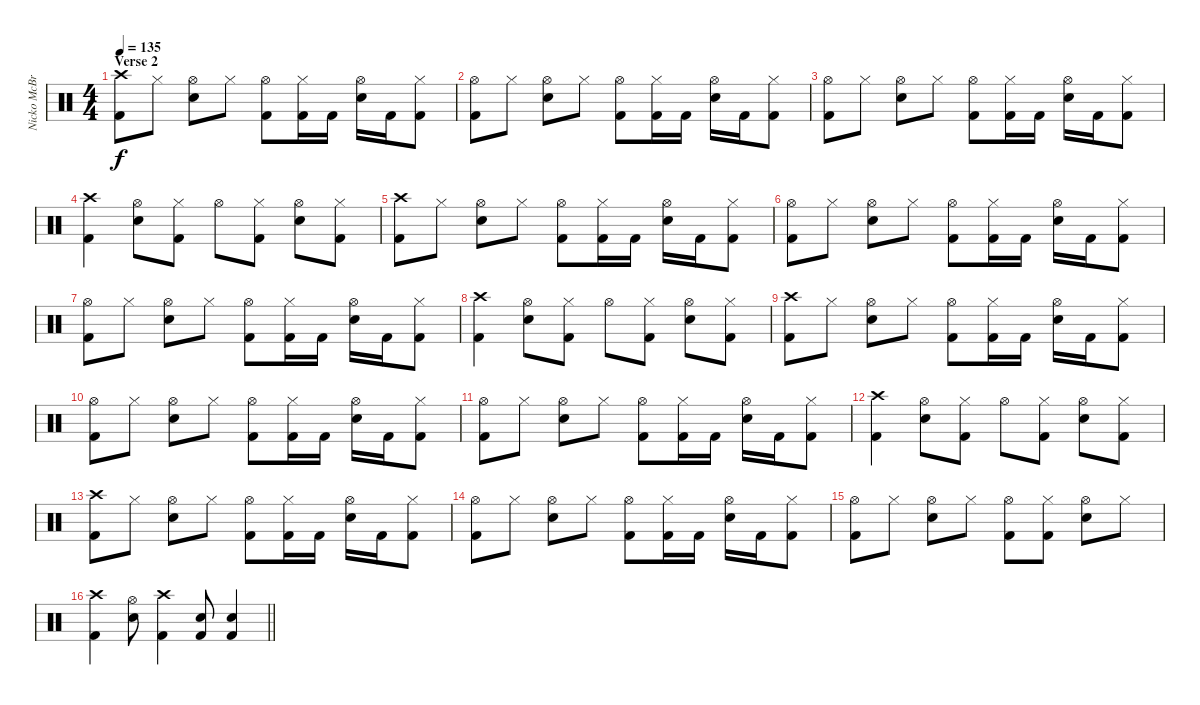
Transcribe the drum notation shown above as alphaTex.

\track ("Nicko McBrain" "Nicko McBr") {instrument percussion}
\staff {score}
\articulation defaults
\ts (4 4)
\section ("" "Verse 2")
\tempo 135
\clef neutral
\ks c
("Crash high (hit)" "Kick (hit) 2").8{dy f} "Hi-Hat (closed)".8 ("Hi-Hat (open)" "Electric Snare (hit)").8 "Hi-Hat (closed)".8 ("Hi-Hat (open)" "Kick (hit) 2").8 ("Hi-Hat (closed)" "Kick (hit) 2").16 "Kick (hit) 2".16 ("Hi-Hat (open)" "Electric Snare (hit)").16 "Kick (hit) 2".16 ("Hi-Hat (closed)" "Kick (hit) 2").8 |
("Hi-Hat (open)" "Kick (hit) 2").8 "Hi-Hat (closed)".8 ("Hi-Hat (open)" "Electric Snare (hit)").8 "Hi-Hat (closed)".8 ("Hi-Hat (open)" "Kick (hit) 2").8 ("Hi-Hat (closed)" "Kick (hit) 2").16 "Kick (hit) 2".16 ("Hi-Hat (open)" "Electric Snare (hit)").16 "Kick (hit) 2".16 ("Hi-Hat (closed)" "Kick (hit) 2").8 |
("Hi-Hat (open)" "Kick (hit) 2").8 "Hi-Hat (closed)".8 ("Hi-Hat (open)" "Electric Snare (hit)").8 "Hi-Hat (closed)".8 ("Hi-Hat (open)" "Kick (hit) 2").8 ("Hi-Hat (closed)" "Kick (hit) 2").16 "Kick (hit) 2".16 ("Hi-Hat (open)" "Electric Snare (hit)").16 "Kick (hit) 2".16 ("Hi-Hat (closed)" "Kick (hit) 2").8 |
("Crash high (hit)" "Kick (hit) 2").4 ("Hi-Hat (open)" "Electric Snare (hit)").8 ("Hi-Hat (closed)" "Kick (hit) 2").8 "Hi-Hat (open)".8 ("Hi-Hat (closed)" "Kick (hit) 2").8 ("Hi-Hat (open)" "Electric Snare (hit)").8 ("Hi-Hat (closed)" "Kick (hit) 2").8 |
("Crash high (hit)" "Kick (hit) 2").8 "Hi-Hat (closed)".8 ("Hi-Hat (open)" "Electric Snare (hit)").8 "Hi-Hat (closed)".8 ("Hi-Hat (open)" "Kick (hit) 2").8 ("Hi-Hat (closed)" "Kick (hit) 2").16 "Kick (hit) 2".16 ("Hi-Hat (open)" "Electric Snare (hit)").16 "Kick (hit) 2".16 ("Hi-Hat (closed)" "Kick (hit) 2").8 |
("Hi-Hat (open)" "Kick (hit) 2").8 "Hi-Hat (closed)".8 ("Hi-Hat (open)" "Electric Snare (hit)").8 "Hi-Hat (closed)".8 ("Hi-Hat (open)" "Kick (hit) 2").8 ("Hi-Hat (closed)" "Kick (hit) 2").16 "Kick (hit) 2".16 ("Hi-Hat (open)" "Electric Snare (hit)").16 "Kick (hit) 2".16 ("Hi-Hat (closed)" "Kick (hit) 2").8 |
("Hi-Hat (open)" "Kick (hit) 2").8 "Hi-Hat (closed)".8 ("Hi-Hat (open)" "Electric Snare (hit)").8 "Hi-Hat (closed)".8 ("Hi-Hat (open)" "Kick (hit) 2").8 ("Hi-Hat (closed)" "Kick (hit) 2").16 "Kick (hit) 2".16 ("Hi-Hat (open)" "Electric Snare (hit)").16 "Kick (hit) 2".16 ("Hi-Hat (closed)" "Kick (hit) 2").8 |
("Crash high (hit)" "Kick (hit) 2").4 ("Hi-Hat (open)" "Electric Snare (hit)").8 ("Hi-Hat (closed)" "Kick (hit) 2").8 "Hi-Hat (open)".8 ("Hi-Hat (closed)" "Kick (hit) 2").8 ("Hi-Hat (open)" "Electric Snare (hit)").8 ("Hi-Hat (closed)" "Kick (hit) 2").8 |
("Crash high (hit)" "Kick (hit) 2").8 "Hi-Hat (closed)".8 ("Hi-Hat (open)" "Electric Snare (hit)").8 "Hi-Hat (closed)".8 ("Hi-Hat (open)" "Kick (hit) 2").8 ("Hi-Hat (closed)" "Kick (hit) 2").16 "Kick (hit) 2".16 ("Hi-Hat (open)" "Electric Snare (hit)").16 "Kick (hit) 2".16 ("Hi-Hat (closed)" "Kick (hit) 2").8 |
("Hi-Hat (open)" "Kick (hit) 2").8 "Hi-Hat (closed)".8 ("Hi-Hat (open)" "Electric Snare (hit)").8 "Hi-Hat (closed)".8 ("Hi-Hat (open)" "Kick (hit) 2").8 ("Hi-Hat (closed)" "Kick (hit) 2").16 "Kick (hit) 2".16 ("Hi-Hat (open)" "Electric Snare (hit)").16 "Kick (hit) 2".16 ("Hi-Hat (closed)" "Kick (hit) 2").8 |
("Hi-Hat (open)" "Kick (hit) 2").8 "Hi-Hat (closed)".8 ("Hi-Hat (open)" "Electric Snare (hit)").8 "Hi-Hat (closed)".8 ("Hi-Hat (open)" "Kick (hit) 2").8 ("Hi-Hat (closed)" "Kick (hit) 2").16 "Kick (hit) 2".16 ("Hi-Hat (open)" "Electric Snare (hit)").16 "Kick (hit) 2".16 ("Hi-Hat (closed)" "Kick (hit) 2").8 |
("Crash high (hit)" "Kick (hit) 2").4 ("Hi-Hat (open)" "Electric Snare (hit)").8 ("Hi-Hat (closed)" "Kick (hit) 2").8 "Hi-Hat (open)".8 ("Hi-Hat (closed)" "Kick (hit) 2").8 ("Hi-Hat (open)" "Electric Snare (hit)").8 ("Hi-Hat (closed)" "Kick (hit) 2").8 |
("Crash high (hit)" "Kick (hit) 2").8 "Hi-Hat (closed)".8 ("Hi-Hat (open)" "Electric Snare (hit)").8 "Hi-Hat (closed)".8 ("Hi-Hat (open)" "Kick (hit) 2").8 ("Hi-Hat (closed)" "Kick (hit) 2").16 "Kick (hit) 2".16 ("Hi-Hat (open)" "Electric Snare (hit)").16 "Kick (hit) 2".16 ("Hi-Hat (closed)" "Kick (hit) 2").8 |
("Hi-Hat (open)" "Kick (hit) 2").8 "Hi-Hat (closed)".8 ("Hi-Hat (open)" "Electric Snare (hit)").8 "Hi-Hat (closed)".8 ("Hi-Hat (open)" "Kick (hit) 2").8 ("Hi-Hat (closed)" "Kick (hit) 2").16 "Kick (hit) 2".16 ("Hi-Hat (open)" "Electric Snare (hit)").16 "Kick (hit) 2".16 ("Hi-Hat (closed)" "Kick (hit) 2").8 |
("Hi-Hat (open)" "Kick (hit) 2").8 "Hi-Hat (closed)".8 ("Hi-Hat (open)" "Electric Snare (hit)").8 "Hi-Hat (closed)".8 ("Hi-Hat (open)" "Kick (hit) 2").8 ("Hi-Hat (closed)" "Kick (hit) 2").8 ("Hi-Hat (open)" "Electric Snare (hit)").8 "Hi-Hat (closed)".8 |
\barLineRight lightlight
("Crash high (hit)" "Kick (hit) 2").4 ("Hi-Hat (open)" "Electric Snare (hit)").8 ("Crash high (hit)" "Kick (hit) 2").4 ("Electric Snare (hit)" "Kick (hit) 2").8 ("Electric Snare (hit)" "Kick (hit) 2").4
